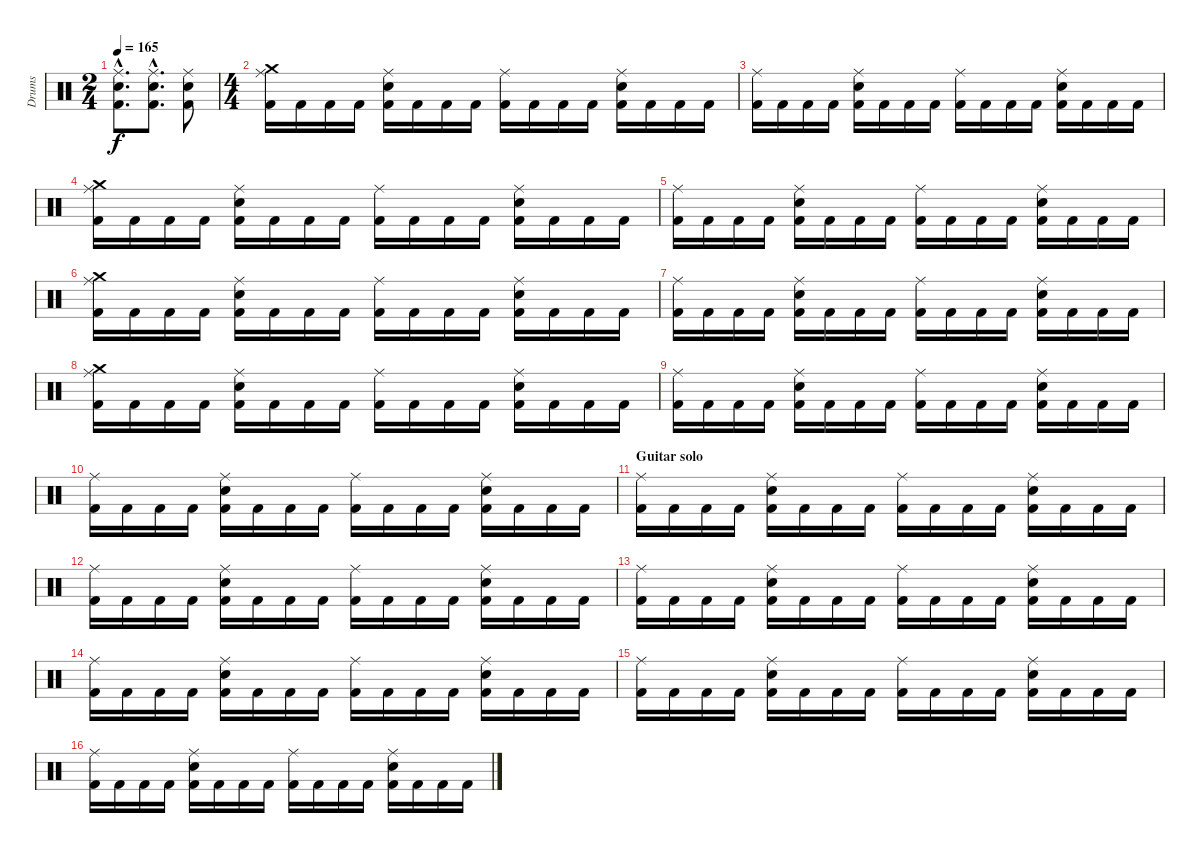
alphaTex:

\track ("Drums" "Drums") {instrument percussion}
\staff {score}
\articulation defaults
\ts (2 4)
\tempo 165
\clef neutral
\ks c
("Kick (hit) 2"{hac} "Electric Snare (hit)"{hac} "Ride (middle)"{hac}).8{d dy f} ("Kick (hit) 2"{hac} "Electric Snare (hit)"{hac} "Ride (middle)"{hac}).8{d} ("Kick (hit) 2" "Electric Snare (hit)" "Ride (middle)").8 |
\ts (4 4)
("Kick (hit) 2" "Ride (middle)" "Crash medium (hit)").16 "Kick (hit) 2".16 "Kick (hit) 2".16 "Kick (hit) 2".16 ("Kick (hit) 2" "Ride (middle)" "Electric Snare (hit)").16 "Kick (hit) 2".16 "Kick (hit) 2".16 "Kick (hit) 2".16 ("Kick (hit) 2" "Ride (middle)").16 "Kick (hit) 2".16 "Kick (hit) 2".16 "Kick (hit) 2".16 ("Kick (hit) 2" "Ride (middle)" "Electric Snare (hit)").16 "Kick (hit) 2".16 "Kick (hit) 2".16 "Kick (hit) 2".16 |
("Kick (hit) 2" "Ride (middle)").16 "Kick (hit) 2".16 "Kick (hit) 2".16 "Kick (hit) 2".16 ("Kick (hit) 2" "Ride (middle)" "Electric Snare (hit)").16 "Kick (hit) 2".16 "Kick (hit) 2".16 "Kick (hit) 2".16 ("Kick (hit) 2" "Ride (middle)").16 "Kick (hit) 2".16 "Kick (hit) 2".16 "Kick (hit) 2".16 ("Kick (hit) 2" "Ride (middle)" "Electric Snare (hit)").16 "Kick (hit) 2".16 "Kick (hit) 2".16 "Kick (hit) 2".16 |
("Kick (hit) 2" "Ride (middle)" "Crash medium (hit)").16 "Kick (hit) 2".16 "Kick (hit) 2".16 "Kick (hit) 2".16 ("Kick (hit) 2" "Ride (middle)" "Electric Snare (hit)").16 "Kick (hit) 2".16 "Kick (hit) 2".16 "Kick (hit) 2".16 ("Kick (hit) 2" "Ride (middle)").16 "Kick (hit) 2".16 "Kick (hit) 2".16 "Kick (hit) 2".16 ("Kick (hit) 2" "Ride (middle)" "Electric Snare (hit)").16 "Kick (hit) 2".16 "Kick (hit) 2".16 "Kick (hit) 2".16 |
("Kick (hit) 2" "Ride (middle)").16 "Kick (hit) 2".16 "Kick (hit) 2".16 "Kick (hit) 2".16 ("Kick (hit) 2" "Ride (middle)" "Electric Snare (hit)").16 "Kick (hit) 2".16 "Kick (hit) 2".16 "Kick (hit) 2".16 ("Kick (hit) 2" "Ride (middle)").16 "Kick (hit) 2".16 "Kick (hit) 2".16 "Kick (hit) 2".16 ("Kick (hit) 2" "Ride (middle)" "Electric Snare (hit)").16 "Kick (hit) 2".16 "Kick (hit) 2".16 "Kick (hit) 2".16 |
("Kick (hit) 2" "Ride (middle)" "Crash medium (hit)").16 "Kick (hit) 2".16 "Kick (hit) 2".16 "Kick (hit) 2".16 ("Kick (hit) 2" "Ride (middle)" "Electric Snare (hit)").16 "Kick (hit) 2".16 "Kick (hit) 2".16 "Kick (hit) 2".16 ("Kick (hit) 2" "Ride (middle)").16 "Kick (hit) 2".16 "Kick (hit) 2".16 "Kick (hit) 2".16 ("Kick (hit) 2" "Ride (middle)" "Electric Snare (hit)").16 "Kick (hit) 2".16 "Kick (hit) 2".16 "Kick (hit) 2".16 |
("Kick (hit) 2" "Ride (middle)").16 "Kick (hit) 2".16 "Kick (hit) 2".16 "Kick (hit) 2".16 ("Kick (hit) 2" "Ride (middle)" "Electric Snare (hit)").16 "Kick (hit) 2".16 "Kick (hit) 2".16 "Kick (hit) 2".16 ("Kick (hit) 2" "Ride (middle)").16 "Kick (hit) 2".16 "Kick (hit) 2".16 "Kick (hit) 2".16 ("Kick (hit) 2" "Ride (middle)" "Electric Snare (hit)").16 "Kick (hit) 2".16 "Kick (hit) 2".16 "Kick (hit) 2".16 |
("Kick (hit) 2" "Ride (middle)" "Crash medium (hit)").16 "Kick (hit) 2".16 "Kick (hit) 2".16 "Kick (hit) 2".16 ("Kick (hit) 2" "Ride (middle)" "Electric Snare (hit)").16 "Kick (hit) 2".16 "Kick (hit) 2".16 "Kick (hit) 2".16 ("Kick (hit) 2" "Ride (middle)").16 "Kick (hit) 2".16 "Kick (hit) 2".16 "Kick (hit) 2".16 ("Kick (hit) 2" "Ride (middle)" "Electric Snare (hit)").16 "Kick (hit) 2".16 "Kick (hit) 2".16 "Kick (hit) 2".16 |
("Kick (hit) 2" "Ride (middle)").16 "Kick (hit) 2".16 "Kick (hit) 2".16 "Kick (hit) 2".16 ("Kick (hit) 2" "Ride (middle)" "Electric Snare (hit)").16 "Kick (hit) 2".16 "Kick (hit) 2".16 "Kick (hit) 2".16 ("Kick (hit) 2" "Ride (middle)").16 "Kick (hit) 2".16 "Kick (hit) 2".16 "Kick (hit) 2".16 ("Kick (hit) 2" "Ride (middle)" "Electric Snare (hit)").16 "Kick (hit) 2".16 "Kick (hit) 2".16 "Kick (hit) 2".16 |
("Kick (hit) 2" "Ride (middle)").16 "Kick (hit) 2".16 "Kick (hit) 2".16 "Kick (hit) 2".16 ("Kick (hit) 2" "Ride (middle)" "Electric Snare (hit)").16 "Kick (hit) 2".16 "Kick (hit) 2".16 "Kick (hit) 2".16 ("Kick (hit) 2" "Ride (middle)").16 "Kick (hit) 2".16 "Kick (hit) 2".16 "Kick (hit) 2".16 ("Kick (hit) 2" "Ride (middle)" "Electric Snare (hit)").16 "Kick (hit) 2".16 "Kick (hit) 2".16 "Kick (hit) 2".16 |
\section ("" "Guitar solo")
("Kick (hit) 2" "Ride (middle)").16 "Kick (hit) 2".16 "Kick (hit) 2".16 "Kick (hit) 2".16 ("Kick (hit) 2" "Ride (middle)" "Electric Snare (hit)").16 "Kick (hit) 2".16 "Kick (hit) 2".16 "Kick (hit) 2".16 ("Kick (hit) 2" "Ride (middle)").16 "Kick (hit) 2".16 "Kick (hit) 2".16 "Kick (hit) 2".16 ("Kick (hit) 2" "Ride (middle)" "Electric Snare (hit)").16 "Kick (hit) 2".16 "Kick (hit) 2".16 "Kick (hit) 2".16 |
("Kick (hit) 2" "Ride (middle)").16 "Kick (hit) 2".16 "Kick (hit) 2".16 "Kick (hit) 2".16 ("Kick (hit) 2" "Ride (middle)" "Electric Snare (hit)").16 "Kick (hit) 2".16 "Kick (hit) 2".16 "Kick (hit) 2".16 ("Kick (hit) 2" "Ride (middle)").16 "Kick (hit) 2".16 "Kick (hit) 2".16 "Kick (hit) 2".16 ("Kick (hit) 2" "Ride (middle)" "Electric Snare (hit)").16 "Kick (hit) 2".16 "Kick (hit) 2".16 "Kick (hit) 2".16 |
("Kick (hit) 2" "Ride (middle)").16 "Kick (hit) 2".16 "Kick (hit) 2".16 "Kick (hit) 2".16 ("Kick (hit) 2" "Ride (middle)" "Electric Snare (hit)").16 "Kick (hit) 2".16 "Kick (hit) 2".16 "Kick (hit) 2".16 ("Kick (hit) 2" "Ride (middle)").16 "Kick (hit) 2".16 "Kick (hit) 2".16 "Kick (hit) 2".16 ("Kick (hit) 2" "Ride (middle)" "Electric Snare (hit)").16 "Kick (hit) 2".16 "Kick (hit) 2".16 "Kick (hit) 2".16 |
("Kick (hit) 2" "Ride (middle)").16 "Kick (hit) 2".16 "Kick (hit) 2".16 "Kick (hit) 2".16 ("Kick (hit) 2" "Ride (middle)" "Electric Snare (hit)").16 "Kick (hit) 2".16 "Kick (hit) 2".16 "Kick (hit) 2".16 ("Kick (hit) 2" "Ride (middle)").16 "Kick (hit) 2".16 "Kick (hit) 2".16 "Kick (hit) 2".16 ("Kick (hit) 2" "Ride (middle)" "Electric Snare (hit)").16 "Kick (hit) 2".16 "Kick (hit) 2".16 "Kick (hit) 2".16 |
("Kick (hit) 2" "Ride (middle)").16 "Kick (hit) 2".16 "Kick (hit) 2".16 "Kick (hit) 2".16 ("Kick (hit) 2" "Ride (middle)" "Electric Snare (hit)").16 "Kick (hit) 2".16 "Kick (hit) 2".16 "Kick (hit) 2".16 ("Kick (hit) 2" "Ride (middle)").16 "Kick (hit) 2".16 "Kick (hit) 2".16 "Kick (hit) 2".16 ("Kick (hit) 2" "Ride (middle)" "Electric Snare (hit)").16 "Kick (hit) 2".16 "Kick (hit) 2".16 "Kick (hit) 2".16 |
("Kick (hit) 2" "Ride (middle)").16 "Kick (hit) 2".16 "Kick (hit) 2".16 "Kick (hit) 2".16 ("Kick (hit) 2" "Ride (middle)" "Electric Snare (hit)").16 "Kick (hit) 2".16 "Kick (hit) 2".16 "Kick (hit) 2".16 ("Kick (hit) 2" "Ride (middle)").16 "Kick (hit) 2".16 "Kick (hit) 2".16 "Kick (hit) 2".16 ("Kick (hit) 2" "Ride (middle)" "Electric Snare (hit)").16 "Kick (hit) 2".16 "Kick (hit) 2".16 "Kick (hit) 2".16
